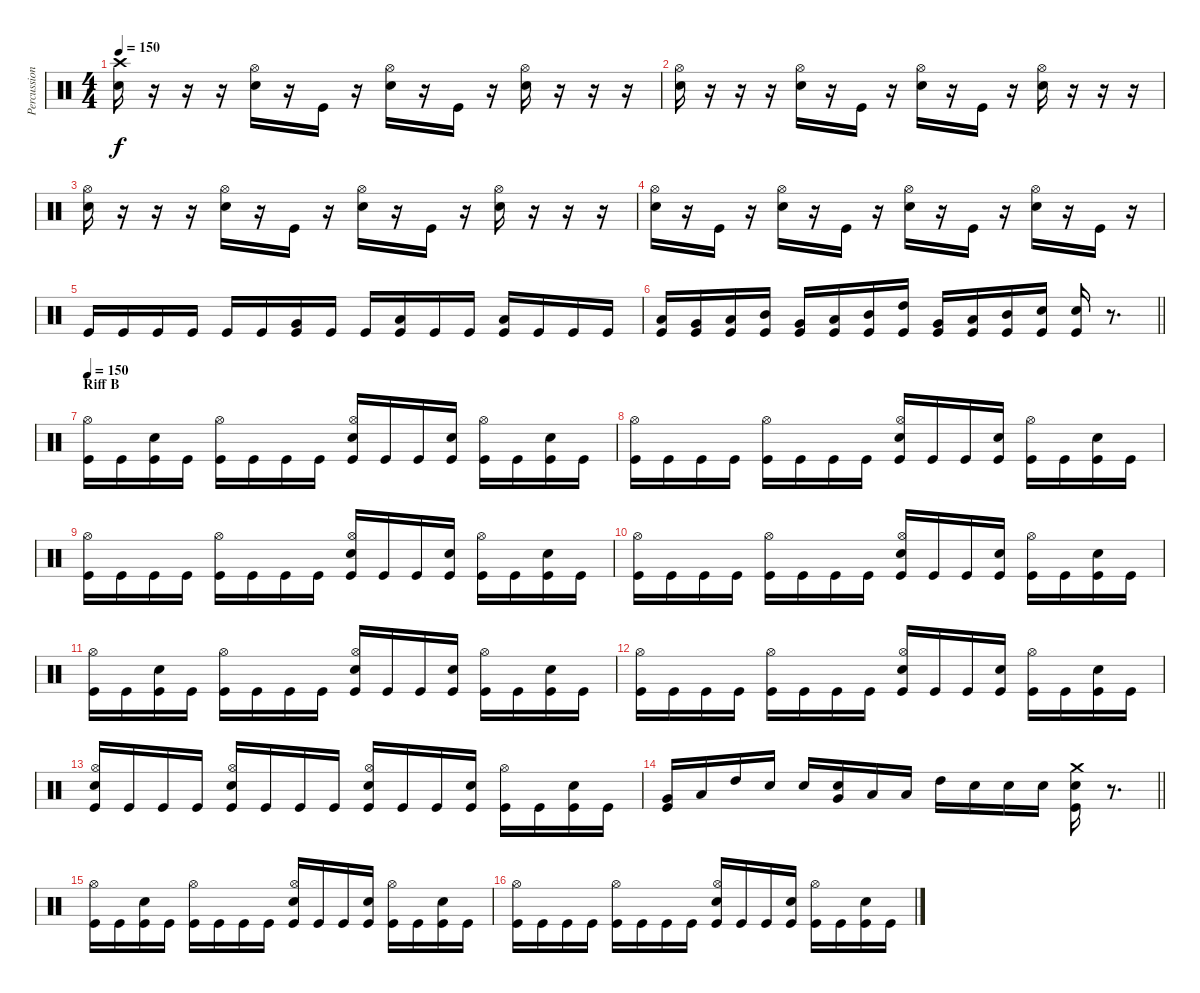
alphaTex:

\track ("Percussion" "Percussion") {instrument percussion}
\staff {score}
\articulation defaults
\ts (4 4)
\tempo 150
\clef neutral
\ks c
("Crash high (hit)" "Snare (hit) 2").16{dy f} r.16 r.16 r.16 ("Hi-Hat (open)" "Snare (hit) 2").16 r.16 "Kick (hit)".16 r.16 ("Hi-Hat (open)" "Snare (hit) 2").16 r.16 "Kick (hit)".16 r.16 ("Hi-Hat (open)" "Snare (hit) 2").16 r.16 r.16 r.16 |
("Hi-Hat (open)" "Snare (hit) 2").16 r.16 r.16 r.16 ("Hi-Hat (open)" "Snare (hit) 2").16 r.16 "Kick (hit)".16 r.16 ("Hi-Hat (open)" "Snare (hit) 2").16 r.16 "Kick (hit)".16 r.16 ("Hi-Hat (open)" "Snare (hit) 2").16 r.16 r.16 r.16 |
("Hi-Hat (open)" "Snare (hit) 2").16 r.16 r.16 r.16 ("Hi-Hat (open)" "Snare (hit) 2").16 r.16 "Kick (hit)".16 r.16 ("Hi-Hat (open)" "Snare (hit) 2").16 r.16 "Kick (hit)".16 r.16 ("Hi-Hat (open)" "Snare (hit) 2").16 r.16 r.16 r.16 |
("Hi-Hat (open)" "Snare (hit) 2").16 r.16 "Kick (hit)".16 r.16 ("Hi-Hat (open)" "Snare (hit) 2").16 r.16 "Kick (hit)".16 r.16 ("Hi-Hat (open)" "Snare (hit) 2").16 r.16 "Kick (hit)".16 r.16 ("Hi-Hat (open)" "Snare (hit) 2").16 r.16 "Kick (hit)".16 r.16 |
"Kick (hit)".16 "Kick (hit)".16 "Kick (hit)".16 "Kick (hit)".16 "Kick (hit)".16 "Kick (hit)".16 ("Very Low Tom (hit)" "Kick (hit)").16 "Kick (hit)".16 "Kick (hit)".16 ("Low Tom (hit)" "Kick (hit)").16 "Kick (hit)".16 "Kick (hit)".16 ("Low Tom (hit)" "Kick (hit)").16 "Kick (hit)".16 "Kick (hit)".16 "Kick (hit)".16 |
\barLineRight lightlight
("Low Floor Tom (hit)" "Kick (hit)").16 ("Very Low Tom (hit)" "Kick (hit)").16 ("Low Tom (hit)" "Kick (hit)").16 ("Mid Tom (hit)" "Kick (hit)").16 ("Very Low Tom (hit)" "Kick (hit)").16 ("Low Tom (hit)" "Kick (hit)").16 ("Mid Tom (hit)" "Kick (hit)").16 ("High Tom (hit)" "Kick (hit)").16 ("Very Low Tom (hit)" "Kick (hit)").16 ("Low Tom (hit)" "Kick (hit)").16 ("Mid Tom (hit)" "Kick (hit)").16 ("Snare (hit) 2" "Kick (hit)").16 ("Snare (hit) 2" "Kick (hit)").16 r.8{d} |
\section ("" "Riff B")
\tempo 150
("Hi-Hat (open)" "Kick (hit)").16 "Kick (hit)".16 ("Snare (hit) 2" "Kick (hit)").16 "Kick (hit)".16 ("Hi-Hat (open)" "Kick (hit)").16 "Kick (hit)".16 "Kick (hit)".16 "Kick (hit)".16 ("Hi-Hat (open)" "Snare (hit) 2" "Kick (hit)").16 "Kick (hit)".16 "Kick (hit)".16 ("Snare (hit) 2" "Kick (hit)").16 ("Hi-Hat (open)" "Kick (hit)").16 "Kick (hit)".16 ("Snare (hit) 2" "Kick (hit)").16 "Kick (hit)".16 |
("Hi-Hat (open)" "Kick (hit)").16 "Kick (hit)".16 "Kick (hit)".16 "Kick (hit)".16 ("Hi-Hat (open)" "Kick (hit)").16 "Kick (hit)".16 "Kick (hit)".16 "Kick (hit)".16 ("Hi-Hat (open)" "Snare (hit) 2" "Kick (hit)").16 "Kick (hit)".16 "Kick (hit)".16 ("Snare (hit) 2" "Kick (hit)").16 ("Hi-Hat (open)" "Kick (hit)").16 "Kick (hit)".16 ("Snare (hit) 2" "Kick (hit)").16 "Kick (hit)".16 |
("Hi-Hat (open)" "Kick (hit)").16 "Kick (hit)".16 "Kick (hit)".16 "Kick (hit)".16 ("Hi-Hat (open)" "Kick (hit)").16 "Kick (hit)".16 "Kick (hit)".16 "Kick (hit)".16 ("Hi-Hat (open)" "Snare (hit) 2" "Kick (hit)").16 "Kick (hit)".16 "Kick (hit)".16 ("Snare (hit) 2" "Kick (hit)").16 ("Hi-Hat (open)" "Kick (hit)").16 "Kick (hit)".16 ("Snare (hit) 2" "Kick (hit)").16 "Kick (hit)".16 |
("Hi-Hat (open)" "Kick (hit)").16 "Kick (hit)".16 "Kick (hit)".16 "Kick (hit)".16 ("Hi-Hat (open)" "Kick (hit)").16 "Kick (hit)".16 "Kick (hit)".16 "Kick (hit)".16 ("Hi-Hat (open)" "Snare (hit) 2" "Kick (hit)").16 "Kick (hit)".16 "Kick (hit)".16 ("Snare (hit) 2" "Kick (hit)").16 ("Hi-Hat (open)" "Kick (hit)").16 "Kick (hit)".16 ("Snare (hit) 2" "Kick (hit)").16 "Kick (hit)".16 |
("Hi-Hat (open)" "Kick (hit)").16 "Kick (hit)".16 ("Snare (hit) 2" "Kick (hit)").16 "Kick (hit)".16 ("Hi-Hat (open)" "Kick (hit)").16 "Kick (hit)".16 "Kick (hit)".16 "Kick (hit)".16 ("Hi-Hat (open)" "Snare (hit) 2" "Kick (hit)").16 "Kick (hit)".16 "Kick (hit)".16 ("Snare (hit) 2" "Kick (hit)").16 ("Hi-Hat (open)" "Kick (hit)").16 "Kick (hit)".16 ("Snare (hit) 2" "Kick (hit)").16 "Kick (hit)".16 |
("Hi-Hat (open)" "Kick (hit)").16 "Kick (hit)".16 "Kick (hit)".16 "Kick (hit)".16 ("Hi-Hat (open)" "Kick (hit)").16 "Kick (hit)".16 "Kick (hit)".16 "Kick (hit)".16 ("Hi-Hat (open)" "Snare (hit) 2" "Kick (hit)").16 "Kick (hit)".16 "Kick (hit)".16 ("Snare (hit) 2" "Kick (hit)").16 ("Hi-Hat (open)" "Kick (hit)").16 "Kick (hit)".16 ("Snare (hit) 2" "Kick (hit)").16 "Kick (hit)".16 |
("Hi-Hat (open)" "Snare (hit) 2" "Kick (hit)").16 "Kick (hit)".16 "Kick (hit)".16 "Kick (hit)".16 ("Hi-Hat (open)" "Snare (hit) 2" "Kick (hit)").16 "Kick (hit)".16 "Kick (hit)".16 "Kick (hit)".16 ("Hi-Hat (open)" "Snare (hit) 2" "Kick (hit)").16 "Kick (hit)".16 "Kick (hit)".16 ("Snare (hit) 2" "Kick (hit)").16 ("Hi-Hat (open)" "Kick (hit)").16 "Kick (hit)".16 ("Snare (hit) 2" "Kick (hit)").16 "Kick (hit)".16 |
\barLineRight lightlight
("Very Low Tom (hit)" "Kick (hit)").16 "Low Tom (hit)".16 "High Tom (hit)".16 "Snare (hit) 2".16 "Snare (hit) 2".16 ("Very Low Tom (hit)" "Snare (hit) 2").16 "Low Tom (hit)".16 "Low Tom (hit)".16 "High Tom (hit)".16 "Snare (hit) 2".16 "Snare (hit) 2".16 "Snare (hit) 2".16 ("Crash medium (hit)" "Snare (hit) 2" "Kick (hit)").16 r.8{d} |
("Hi-Hat (open)" "Kick (hit)").16 "Kick (hit)".16 ("Snare (hit) 2" "Kick (hit)").16 "Kick (hit)".16 ("Hi-Hat (open)" "Kick (hit)").16 "Kick (hit)".16 "Kick (hit)".16 "Kick (hit)".16 ("Hi-Hat (open)" "Snare (hit) 2" "Kick (hit)").16 "Kick (hit)".16 "Kick (hit)".16 ("Snare (hit) 2" "Kick (hit)").16 ("Hi-Hat (open)" "Kick (hit)").16 "Kick (hit)".16 ("Snare (hit) 2" "Kick (hit)").16 "Kick (hit)".16 |
("Hi-Hat (open)" "Kick (hit)").16 "Kick (hit)".16 "Kick (hit)".16 "Kick (hit)".16 ("Hi-Hat (open)" "Kick (hit)").16 "Kick (hit)".16 "Kick (hit)".16 "Kick (hit)".16 ("Hi-Hat (open)" "Snare (hit) 2" "Kick (hit)").16 "Kick (hit)".16 "Kick (hit)".16 ("Snare (hit) 2" "Kick (hit)").16 ("Hi-Hat (open)" "Kick (hit)").16 "Kick (hit)".16 ("Snare (hit) 2" "Kick (hit)").16 "Kick (hit)".16
